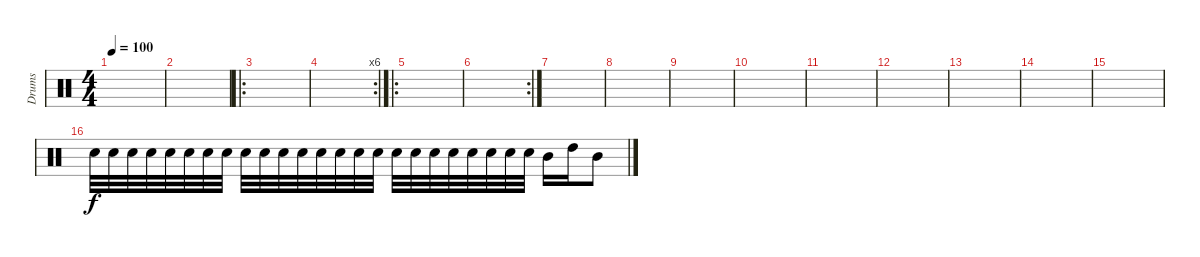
\track ("Drums" "Drums") {instrument percussion}
\staff {score}
\articulation defaults
\ts (4 4)
\tempo 100
\clef neutral
\ks c
|
|
\ro
|
\rc 6
|
\ro
|
\rc 2
|
|
|
|
|
|
|
|
|
|
"Snare (hit) 2".32{volume 13} "Snare (hit) 2".32 "Snare (hit) 2".32 "Snare (hit) 2".32 "Snare (hit) 2".32 "Snare (hit) 2".32 "Snare (hit) 2".32 "Snare (hit) 2".32 "Snare (hit) 2".32 "Snare (hit) 2".32 "Snare (hit) 2".32 "Snare (hit) 2".32 "Snare (hit) 2".32 "Snare (hit) 2".32 "Snare (hit) 2".32 "Snare (hit) 2".32 "Snare (hit) 2".32 "Snare (hit) 2".32 "Snare (hit) 2".32 "Snare (hit) 2".32 "Snare (hit) 2".32 "Snare (hit) 2".32 "Snare (hit) 2".32 "Snare (hit) 2".32 "Mid Tom (hit)".16 "High Tom (hit)".16 "Mid Tom (hit)".8
